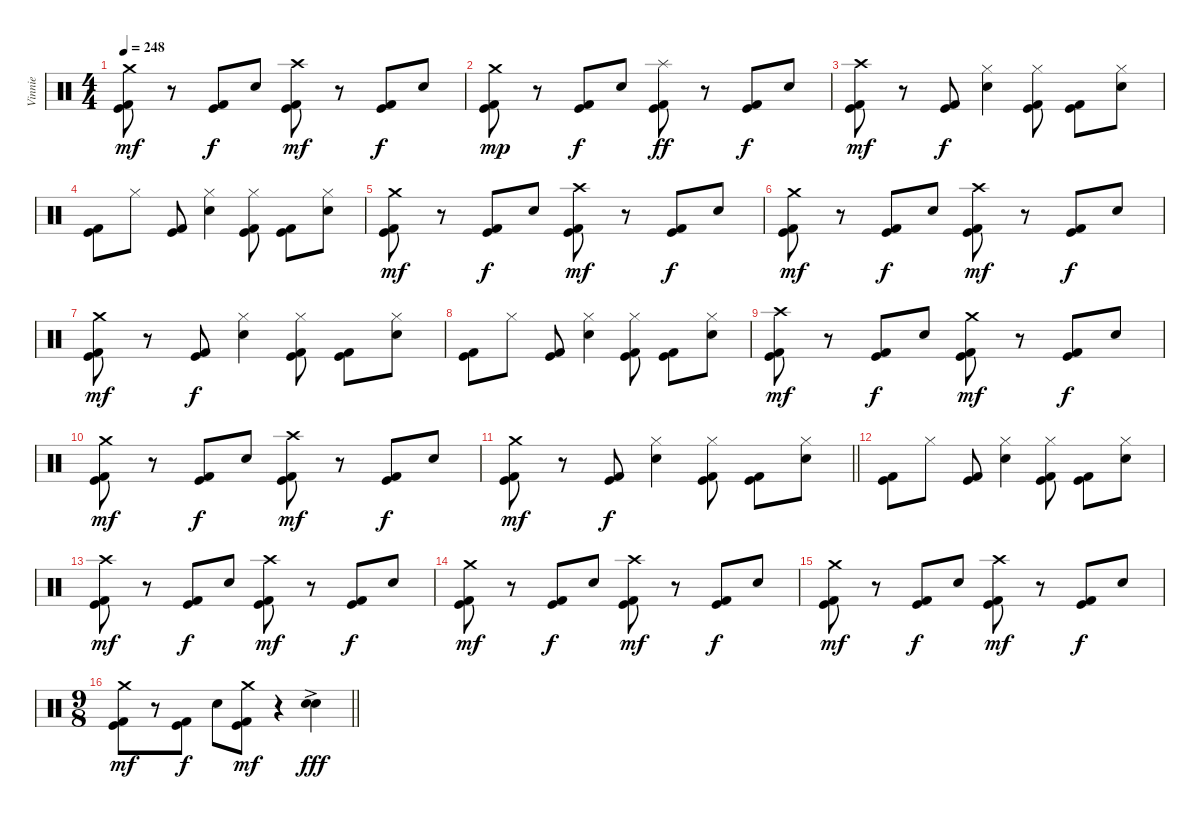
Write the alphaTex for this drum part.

\track ("Vinnie" "Vinnie") {instrument percussion}
\staff {score}
\articulation defaults
\ts (4 4)
\tempo 248
\clef neutral
\ks c
("Crash medium (hit)" "Kick (hit)" "Kick (hit) 2").8{dy mf} r.8 ("Kick (hit)" "Kick (hit) 2").8{dy f} "Electric Snare (hit)".8 ("Crash high (hit)" "Kick (hit)" "Kick (hit) 2").8{dy mf} r.8 ("Kick (hit)" "Kick (hit) 2").8{dy f} "Electric Snare (hit)".8 |
("Crash medium (hit)" "Kick (hit)" "Kick (hit) 2").8{dy mp} r.8 ("Kick (hit)" "Kick (hit) 2").8{dy f} "Electric Snare (hit)".8 ("Splash (hit)" "Kick (hit)" "Kick (hit) 2").8{dy ff} r.8 ("Kick (hit)" "Kick (hit) 2").8{dy f} "Electric Snare (hit)".8 |
("Crash high (hit)" "Kick (hit)" "Kick (hit) 2").8{dy mf} r.8 ("Kick (hit)" "Kick (hit) 2").8{dy f} ("Hi-Hat (closed)" "Electric Snare (hit)").4 ("Hi-Hat (closed)" "Kick (hit)" "Kick (hit) 2").8 ("Kick (hit)" "Kick (hit) 2").8 ("Hi-Hat (closed)" "Electric Snare (hit)").8 |
("Kick (hit)" "Kick (hit) 2").8 "Hi-Hat (closed)".8 ("Kick (hit)" "Kick (hit) 2").8 ("Hi-Hat (closed)" "Electric Snare (hit)").4 ("Hi-Hat (closed)" "Kick (hit)" "Kick (hit) 2").8 ("Kick (hit)" "Kick (hit) 2").8 ("Hi-Hat (closed)" "Electric Snare (hit)").8 |
("Crash medium (hit)" "Kick (hit)" "Kick (hit) 2").8{dy mf} r.8 ("Kick (hit)" "Kick (hit) 2").8{dy f} "Electric Snare (hit)".8 ("Crash high (hit)" "Kick (hit)" "Kick (hit) 2").8{dy mf} r.8 ("Kick (hit)" "Kick (hit) 2").8{dy f} "Electric Snare (hit)".8 |
("Crash medium (hit)" "Kick (hit)" "Kick (hit) 2").8{dy mf} r.8 ("Kick (hit)" "Kick (hit) 2").8{dy f} "Electric Snare (hit)".8 ("Crash high (hit)" "Kick (hit)" "Kick (hit) 2").8{dy mf} r.8 ("Kick (hit)" "Kick (hit) 2").8{dy f} "Electric Snare (hit)".8 |
("Crash medium (hit)" "Kick (hit)" "Kick (hit) 2").8{dy mf} r.8 ("Kick (hit)" "Kick (hit) 2").8{dy f} ("Hi-Hat (closed)" "Electric Snare (hit)").4 ("Hi-Hat (closed)" "Kick (hit)" "Kick (hit) 2").8 ("Kick (hit)" "Kick (hit) 2").8 ("Hi-Hat (closed)" "Electric Snare (hit)").8 |
("Kick (hit)" "Kick (hit) 2").8 "Hi-Hat (closed)".8 ("Kick (hit)" "Kick (hit) 2").8 ("Hi-Hat (closed)" "Electric Snare (hit)").4 ("Hi-Hat (closed)" "Kick (hit)" "Kick (hit) 2").8 ("Kick (hit)" "Kick (hit) 2").8 ("Hi-Hat (closed)" "Electric Snare (hit)").8 |
("Crash high (hit)" "Kick (hit)" "Kick (hit) 2").8{dy mf} r.8 ("Kick (hit)" "Kick (hit) 2").8{dy f} "Electric Snare (hit)".8 ("Crash medium (hit)" "Kick (hit)" "Kick (hit) 2").8{dy mf} r.8 ("Kick (hit)" "Kick (hit) 2").8{dy f} "Electric Snare (hit)".8 |
("Crash medium (hit)" "Kick (hit)" "Kick (hit) 2").8{dy mf} r.8 ("Kick (hit)" "Kick (hit) 2").8{dy f} "Electric Snare (hit)".8 ("Crash high (hit)" "Kick (hit)" "Kick (hit) 2").8{dy mf} r.8 ("Kick (hit)" "Kick (hit) 2").8{dy f} "Electric Snare (hit)".8 |
\barLineRight lightlight
("Crash medium (hit)" "Kick (hit)" "Kick (hit) 2").8{dy mf} r.8 ("Kick (hit)" "Kick (hit) 2").8{dy f} ("Hi-Hat (closed)" "Electric Snare (hit)").4 ("Hi-Hat (closed)" "Kick (hit)" "Kick (hit) 2").8 ("Kick (hit)" "Kick (hit) 2").8 ("Hi-Hat (closed)" "Electric Snare (hit)").8 |
("Kick (hit)" "Kick (hit) 2").8 "Hi-Hat (closed)".8 ("Kick (hit)" "Kick (hit) 2").8 ("Hi-Hat (closed)" "Electric Snare (hit)").4 ("Hi-Hat (closed)" "Kick (hit)" "Kick (hit) 2").8 ("Kick (hit)" "Kick (hit) 2").8 ("Hi-Hat (closed)" "Electric Snare (hit)").8 |
("Crash high (hit)" "Kick (hit)" "Kick (hit) 2").8{dy mf} r.8 ("Kick (hit)" "Kick (hit) 2").8{dy f} "Electric Snare (hit)".8 ("Crash high (hit)" "Kick (hit)" "Kick (hit) 2").8{dy mf} r.8 ("Kick (hit)" "Kick (hit) 2").8{dy f} "Electric Snare (hit)".8 |
("Crash medium (hit)" "Kick (hit)" "Kick (hit) 2").8{dy mf} r.8 ("Kick (hit)" "Kick (hit) 2").8{dy f} "Electric Snare (hit)".8 ("Crash high (hit)" "Kick (hit)" "Kick (hit) 2").8{dy mf} r.8 ("Kick (hit)" "Kick (hit) 2").8{dy f} "Electric Snare (hit)".8 |
("Crash medium (hit)" "Kick (hit)" "Kick (hit) 2").8{dy mf} r.8 ("Kick (hit)" "Kick (hit) 2").8{dy f} "Electric Snare (hit)".8 ("Crash high (hit)" "Kick (hit)" "Kick (hit) 2").8{dy mf} r.8 ("Kick (hit)" "Kick (hit) 2").8{dy f} "Electric Snare (hit)".8 |
\ts (9 8)
\barLineRight lightlight
("Crash medium (hit)" "Kick (hit)" "Kick (hit) 2").8{dy mf} r.8 ("Kick (hit)" "Kick (hit) 2").8{dy f} "Electric Snare (hit)".8 ("Crash medium (hit)" "Kick (hit)" "Kick (hit) 2").8{dy mf} r.4 ("Electric Snare (hit)"{ac} "Electric Snare (hit)").4{dy fff}
